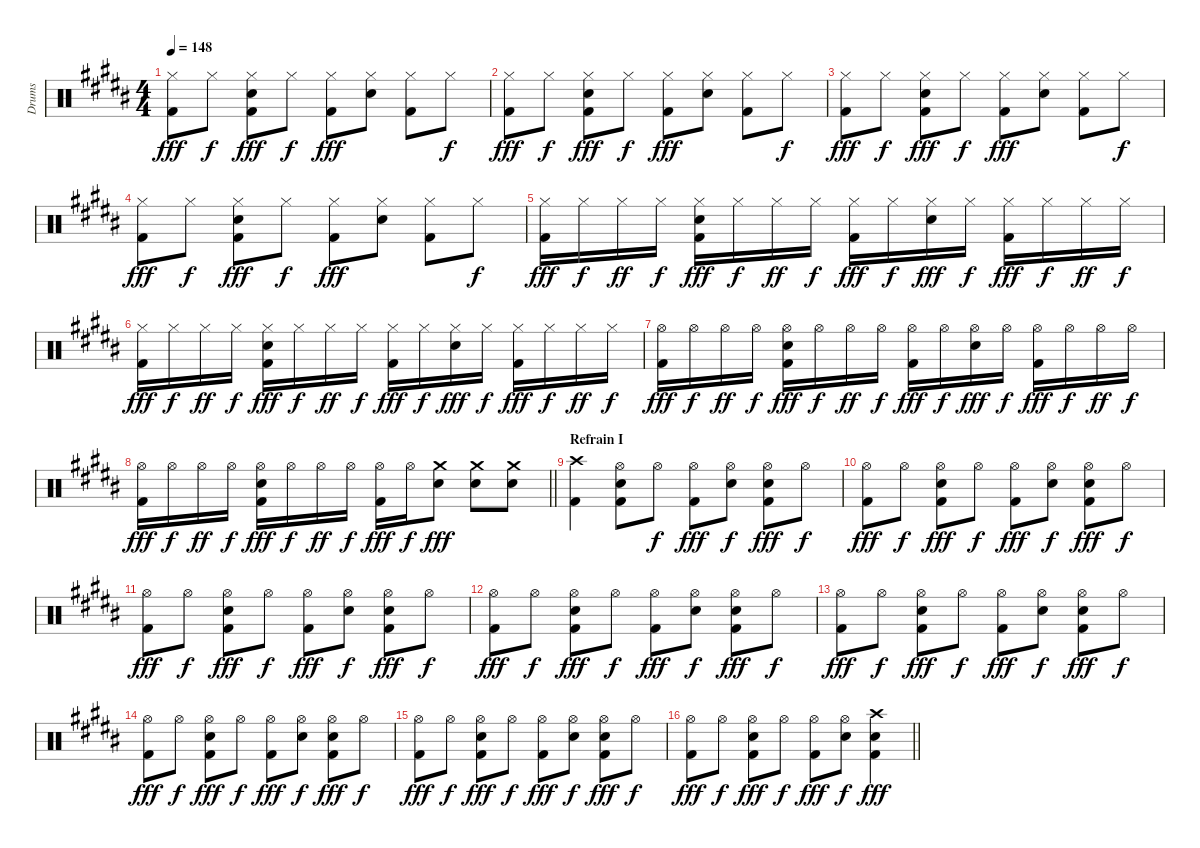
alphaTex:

\track ("Drums" "Drums") {instrument percussion}
\staff {score}
\articulation defaults
\ts (4 4)
\tempo 148
\clef neutral
\ks b
("Hi-Hat (closed)" "Kick (hit) 2").8{dy fff} "Hi-Hat (closed)".8{dy f} ("Hi-Hat (closed)" "Electric Snare (hit)" "Kick (hit) 2").8{dy fff} "Hi-Hat (closed)".8{dy f} ("Hi-Hat (closed)" "Kick (hit) 2").8{dy fff} ("Hi-Hat (closed)" "Electric Snare (hit)").8 ("Hi-Hat (closed)" "Kick (hit) 2").8 "Hi-Hat (closed)".8{dy f} |
("Hi-Hat (closed)" "Kick (hit) 2").8{dy fff} "Hi-Hat (closed)".8{dy f} ("Hi-Hat (closed)" "Electric Snare (hit)" "Kick (hit) 2").8{dy fff} "Hi-Hat (closed)".8{dy f} ("Hi-Hat (closed)" "Kick (hit) 2").8{dy fff} ("Hi-Hat (closed)" "Electric Snare (hit)").8 ("Hi-Hat (closed)" "Kick (hit) 2").8 "Hi-Hat (closed)".8{dy f} |
("Hi-Hat (closed)" "Kick (hit) 2").8{dy fff} "Hi-Hat (closed)".8{dy f} ("Hi-Hat (closed)" "Electric Snare (hit)" "Kick (hit) 2").8{dy fff} "Hi-Hat (closed)".8{dy f} ("Hi-Hat (closed)" "Kick (hit) 2").8{dy fff} ("Hi-Hat (closed)" "Electric Snare (hit)").8 ("Hi-Hat (closed)" "Kick (hit) 2").8 "Hi-Hat (closed)".8{dy f} |
("Hi-Hat (closed)" "Kick (hit) 2").8{dy fff} "Hi-Hat (closed)".8{dy f} ("Hi-Hat (closed)" "Electric Snare (hit)" "Kick (hit) 2").8{dy fff} "Hi-Hat (closed)".8{dy f} ("Hi-Hat (closed)" "Kick (hit) 2").8{dy fff} ("Hi-Hat (closed)" "Electric Snare (hit)").8 ("Hi-Hat (closed)" "Kick (hit) 2").8 "Hi-Hat (closed)".8{dy f} |
("Hi-Hat (closed)" "Kick (hit) 2").16{dy fff} "Hi-Hat (closed)".16{dy f} "Hi-Hat (closed)".16{dy ff} "Hi-Hat (closed)".16{dy f} ("Hi-Hat (closed)" "Electric Snare (hit)" "Kick (hit) 2").16{dy fff} "Hi-Hat (closed)".16{dy f} "Hi-Hat (closed)".16{dy ff} "Hi-Hat (closed)".16{dy f} ("Hi-Hat (closed)" "Kick (hit) 2").16{dy fff} "Hi-Hat (closed)".16{dy f} ("Hi-Hat (closed)" "Electric Snare (hit)").16{dy fff} "Hi-Hat (closed)".16{dy f} ("Hi-Hat (closed)" "Kick (hit) 2").16{dy fff} "Hi-Hat (closed)".16{dy f} "Hi-Hat (closed)".16{dy ff} "Hi-Hat (closed)".16{dy f} |
("Hi-Hat (closed)" "Kick (hit) 2").16{dy fff} "Hi-Hat (closed)".16{dy f} "Hi-Hat (closed)".16{dy ff} "Hi-Hat (closed)".16{dy f} ("Hi-Hat (closed)" "Electric Snare (hit)" "Kick (hit) 2").16{dy fff} "Hi-Hat (closed)".16{dy f} "Hi-Hat (closed)".16{dy ff} "Hi-Hat (closed)".16{dy f} ("Hi-Hat (closed)" "Kick (hit) 2").16{dy fff} "Hi-Hat (closed)".16{dy f} ("Hi-Hat (closed)" "Electric Snare (hit)").16{dy fff} "Hi-Hat (closed)".16{dy f} ("Hi-Hat (closed)" "Kick (hit) 2").16{dy fff} "Hi-Hat (closed)".16{dy f} "Hi-Hat (closed)".16{dy ff} "Hi-Hat (closed)".16{dy f} |
("Hi-Hat (open)" "Kick (hit) 2").16{dy fff} "Hi-Hat (open)".16{dy f} "Hi-Hat (open)".16{dy ff} "Hi-Hat (open)".16{dy f} ("Hi-Hat (open)" "Electric Snare (hit)" "Kick (hit) 2").16{dy fff} "Hi-Hat (open)".16{dy f} "Hi-Hat (open)".16{dy ff} "Hi-Hat (open)".16{dy f} ("Hi-Hat (open)" "Kick (hit) 2").16{dy fff} "Hi-Hat (open)".16{dy f} ("Hi-Hat (open)" "Electric Snare (hit)").16{dy fff} "Hi-Hat (open)".16{dy f} ("Hi-Hat (open)" "Kick (hit) 2").16{dy fff} "Hi-Hat (open)".16{dy f} "Hi-Hat (open)".16{dy ff} "Hi-Hat (open)".16{dy f} |
\barLineRight lightlight
("Hi-Hat (open)" "Kick (hit) 2").16{dy fff} "Hi-Hat (open)".16{dy f} "Hi-Hat (open)".16{dy ff} "Hi-Hat (open)".16{dy f} ("Hi-Hat (open)" "Electric Snare (hit)" "Kick (hit) 2").16{dy fff} "Hi-Hat (open)".16{dy f} "Hi-Hat (open)".16{dy ff} "Hi-Hat (open)".16{dy f} ("Hi-Hat (open)" "Kick (hit) 2").16{dy fff} "Hi-Hat (open)".16{dy f} ("Crash medium (hit)" "Snare (hit) 2").8{dy fff} ("Crash medium (hit)" "Snare (hit) 2").8 ("Crash medium (hit)" "Snare (hit) 2").8 |
\section ("" "Refrain I")
("Crash high (hit)" "Kick (hit) 2").4 ("Hi-Hat (open)" "Snare (hit) 2" "Kick (hit) 2").8 "Hi-Hat (open)".8{dy f} ("Hi-Hat (open)" "Kick (hit) 2").8{dy fff} ("Hi-Hat (open)" "Electric Snare (hit)").8{dy f} ("Hi-Hat (open)" "Snare (hit) 2" "Kick (hit) 2").8{dy fff} "Hi-Hat (open)".8{dy f} |
("Hi-Hat (open)" "Kick (hit) 2").8{dy fff} "Hi-Hat (open)".8{dy f} ("Hi-Hat (open)" "Snare (hit) 2" "Kick (hit) 2").8{dy fff} "Hi-Hat (open)".8{dy f} ("Hi-Hat (open)" "Kick (hit) 2").8{dy fff} ("Hi-Hat (open)" "Electric Snare (hit)").8{dy f} ("Hi-Hat (open)" "Snare (hit) 2" "Kick (hit) 2").8{dy fff} "Hi-Hat (open)".8{dy f} |
("Hi-Hat (open)" "Kick (hit) 2").8{dy fff} "Hi-Hat (open)".8{dy f} ("Hi-Hat (open)" "Snare (hit) 2" "Kick (hit) 2").8{dy fff} "Hi-Hat (open)".8{dy f} ("Hi-Hat (open)" "Kick (hit) 2").8{dy fff} ("Hi-Hat (open)" "Electric Snare (hit)").8{dy f} ("Hi-Hat (open)" "Snare (hit) 2" "Kick (hit) 2").8{dy fff} "Hi-Hat (open)".8{dy f} |
("Hi-Hat (open)" "Kick (hit) 2").8{dy fff} "Hi-Hat (open)".8{dy f} ("Hi-Hat (open)" "Snare (hit) 2" "Kick (hit) 2").8{dy fff} "Hi-Hat (open)".8{dy f} ("Hi-Hat (open)" "Kick (hit) 2").8{dy fff} ("Hi-Hat (open)" "Electric Snare (hit)").8{dy f} ("Hi-Hat (open)" "Snare (hit) 2" "Kick (hit) 2").8{dy fff} "Hi-Hat (open)".8{dy f} |
("Hi-Hat (open)" "Kick (hit) 2").8{dy fff} "Hi-Hat (open)".8{dy f} ("Hi-Hat (open)" "Snare (hit) 2" "Kick (hit) 2").8{dy fff} "Hi-Hat (open)".8{dy f} ("Hi-Hat (open)" "Kick (hit) 2").8{dy fff} ("Hi-Hat (open)" "Electric Snare (hit)").8{dy f} ("Hi-Hat (open)" "Snare (hit) 2" "Kick (hit) 2").8{dy fff} "Hi-Hat (open)".8{dy f} |
("Hi-Hat (open)" "Kick (hit) 2").8{dy fff} "Hi-Hat (open)".8{dy f} ("Hi-Hat (open)" "Snare (hit) 2" "Kick (hit) 2").8{dy fff} "Hi-Hat (open)".8{dy f} ("Hi-Hat (open)" "Kick (hit) 2").8{dy fff} ("Hi-Hat (open)" "Electric Snare (hit)").8{dy f} ("Hi-Hat (open)" "Snare (hit) 2" "Kick (hit) 2").8{dy fff} "Hi-Hat (open)".8{dy f} |
("Hi-Hat (open)" "Kick (hit) 2").8{dy fff} "Hi-Hat (open)".8{dy f} ("Hi-Hat (open)" "Snare (hit) 2" "Kick (hit) 2").8{dy fff} "Hi-Hat (open)".8{dy f} ("Hi-Hat (open)" "Kick (hit) 2").8{dy fff} ("Hi-Hat (open)" "Electric Snare (hit)").8{dy f} ("Hi-Hat (open)" "Snare (hit) 2" "Kick (hit) 2").8{dy fff} "Hi-Hat (open)".8{dy f} |
\barLineRight lightlight
("Hi-Hat (open)" "Kick (hit) 2").8{dy fff} "Hi-Hat (open)".8{dy f} ("Hi-Hat (open)" "Snare (hit) 2" "Kick (hit) 2").8{dy fff} "Hi-Hat (open)".8{dy f} ("Hi-Hat (open)" "Kick (hit) 2").8{dy fff} ("Hi-Hat (open)" "Electric Snare (hit)").8{dy f} ("Crash high (hit)" "Snare (hit) 2" "Kick (hit) 2").4{dy fff}
